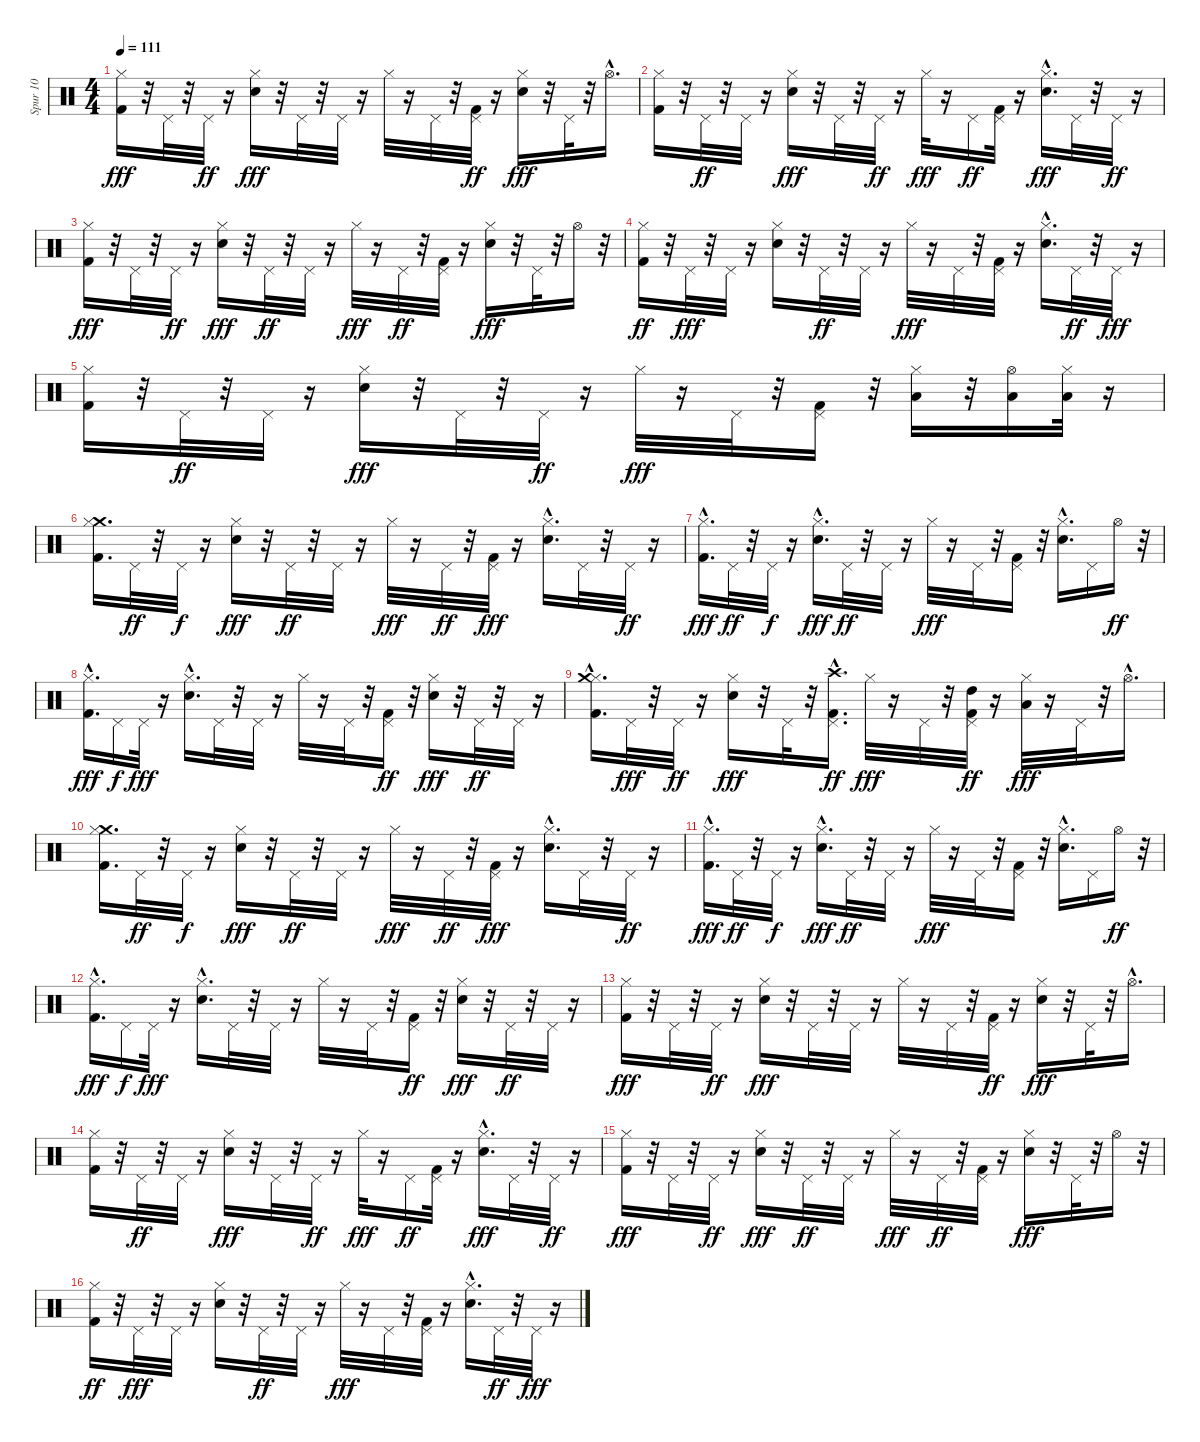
\track ("Spur 10" "Spur 10") {instrument percussion}
\staff {score}
\articulation defaults
\ts (4 4)
\tempo 111
\clef neutral
\ks c
("Kick (hit) 2" "Hi-Hat (closed)").16{dy fff} r.32 "Pedal Hi-Hat (hit)".32 r.32 "Pedal Hi-Hat (hit)".32{dy ff} r.16 ("Snare (hit) 2" "Hi-Hat (closed)").16{dy fff} r.32 "Pedal Hi-Hat (hit)".32 r.32 "Pedal Hi-Hat (hit)".32 r.16 "Hi-Hat (closed)".32 r.16 "Pedal Hi-Hat (hit)".32 r.32 ("Kick (hit) 2" "Pedal Hi-Hat (hit)").32{dy ff} r.16 ("Snare (hit) 2" "Hi-Hat (closed)").16{dy fff} r.32 "Pedal Hi-Hat (hit)".32 r.32 "Hi-Hat (open)"{hac}.16{d} |
("Kick (hit) 2" "Hi-Hat (closed)").16 r.32 "Pedal Hi-Hat (hit)".32{dy ff} r.32 "Pedal Hi-Hat (hit)".32 r.16 ("Snare (hit) 2" "Hi-Hat (closed)").16{dy fff} r.32 "Pedal Hi-Hat (hit)".32 r.32 "Pedal Hi-Hat (hit)".32{dy ff} r.16 "Hi-Hat (closed)".32{dy fff} r.16 "Pedal Hi-Hat (hit)".16{dy ff} ("Kick (hit) 2" "Pedal Hi-Hat (hit)").32 r.16 ("Snare (hit) 2"{hac} "Hi-Hat (closed)").16{d dy fff} "Pedal Hi-Hat (hit)".32 r.32 "Pedal Hi-Hat (hit)".32{dy ff} r.16 |
("Kick (hit) 2" "Hi-Hat (closed)").16{dy fff} r.32 "Pedal Hi-Hat (hit)".32 r.32 "Pedal Hi-Hat (hit)".32{dy ff} r.16 ("Snare (hit) 2" "Hi-Hat (closed)").16{dy fff} r.32 "Pedal Hi-Hat (hit)".32{dy ff} r.32 "Pedal Hi-Hat (hit)".32 r.16 "Hi-Hat (closed)".32{dy fff} r.16 "Pedal Hi-Hat (hit)".32{dy ff} r.32 ("Kick (hit) 2" "Pedal Hi-Hat (hit)").32 r.16 ("Snare (hit) 2" "Hi-Hat (closed)").16{dy fff} r.32 "Pedal Hi-Hat (hit)".32 r.32 "Hi-Hat (open)".16 r.32 |
("Kick (hit) 2" "Hi-Hat (closed)").16{dy ff} r.32 "Pedal Hi-Hat (hit)".32{dy fff} r.32 "Pedal Hi-Hat (hit)".32 r.16 ("Snare (hit) 2" "Hi-Hat (closed)").16 r.32 "Pedal Hi-Hat (hit)".32{dy ff} r.32 "Pedal Hi-Hat (hit)".32 r.16 "Hi-Hat (closed)".32{dy fff} r.16 "Pedal Hi-Hat (hit)".32 r.32 ("Kick (hit) 2" "Pedal Hi-Hat (hit)").32 r.16 ("Snare (hit) 2"{hac} "Hi-Hat (closed)").16{d} "Pedal Hi-Hat (hit)".32{dy ff} r.32 "Pedal Hi-Hat (hit)".32{dy fff} r.16 |
("Kick (hit) 2" "Hi-Hat (closed)").16 r.32 "Pedal Hi-Hat (hit)".32{dy ff} r.32 "Pedal Hi-Hat (hit)".32 r.16 ("Snare (hit) 2" "Hi-Hat (closed)").16{dy fff} r.32 "Pedal Hi-Hat (hit)".32 r.32 "Pedal Hi-Hat (hit)".32{dy ff} r.16 "Hi-Hat (closed)".32{dy fff} r.16 "Pedal Hi-Hat (hit)".32 r.32 ("Kick (hit) 2" "Pedal Hi-Hat (hit)").16 r.32 ("Low Tom (hit)" "Hi-Hat (closed)").16 r.32 ("Low Tom (hit)" "Hi-Hat (open)").16 ("Low Floor Tom (hit)" "Hi-Hat (closed)").32 r.16 |
("Kick (hit) 2" "Crash medium (hit)" "Hi-Hat (closed)").16{d} "Pedal Hi-Hat (hit)".32{dy ff} r.32 "Pedal Hi-Hat (hit)".32{dy f} r.16 ("Snare (hit) 2" "Hi-Hat (closed)").16{dy fff} r.32 "Pedal Hi-Hat (hit)".32{dy ff} r.32 "Pedal Hi-Hat (hit)".32 r.16 "Hi-Hat (closed)".32{dy fff} r.16 "Pedal Hi-Hat (hit)".32{dy ff} r.32 ("Kick (hit) 2" "Pedal Hi-Hat (hit)").32{dy fff} r.16 ("Snare (hit) 2"{hac} "Hi-Hat (closed)").16{d} "Pedal Hi-Hat (hit)".32 r.32 "Pedal Hi-Hat (hit)".32{dy ff} r.16 |
("Kick (hit) 2"{hac} "Hi-Hat (closed)").16{d dy fff} "Pedal Hi-Hat (hit)".32{dy ff} r.32 "Pedal Hi-Hat (hit)".32{dy f} r.16 ("Snare (hit) 2"{hac} "Hi-Hat (closed)").16{d dy fff} "Pedal Hi-Hat (hit)".32{dy ff} r.32 "Pedal Hi-Hat (hit)".32 r.16 "Hi-Hat (closed)".32{dy fff} r.16 "Pedal Hi-Hat (hit)".32 r.32 ("Kick (hit) 2" "Pedal Hi-Hat (hit)").16 r.32 ("Snare (hit) 2"{hac} "Hi-Hat (closed)").16{d} "Pedal Hi-Hat (hit)".16 "Hi-Hat (open)".16{dy ff} r.32 |
("Kick (hit) 2"{hac} "Hi-Hat (closed)").16{d dy fff} "Pedal Hi-Hat (hit)".16{dy f} "Pedal Hi-Hat (hit)".32{dy fff} r.16 ("Snare (hit) 2"{hac} "Hi-Hat (closed)").16{d} "Pedal Hi-Hat (hit)".32 r.32 "Pedal Hi-Hat (hit)".32 r.16 "Hi-Hat (closed)".32 r.16 "Pedal Hi-Hat (hit)".32 r.32 ("Kick (hit) 2" "Pedal Hi-Hat (hit)").16{dy ff} r.32 ("Snare (hit) 2" "Hi-Hat (closed)").16{dy fff} r.32 "Pedal Hi-Hat (hit)".32{dy ff} r.32 "Pedal Hi-Hat (hit)".32 r.16 |
("Kick (hit) 2" "Hi-Hat (closed)" "Crash medium (hit)"{hac}).16{d} "Pedal Hi-Hat (hit)".32{dy fff} r.32 "Pedal Hi-Hat (hit)".32{dy ff} r.16 ("Snare (hit) 2" "Hi-Hat (closed)").16{dy fff} r.32 "Pedal Hi-Hat (hit)".32 r.32 ("Pedal Hi-Hat (hit)" "Kick (hit) 2" "Crash high (hit)"{hac}).16{d dy ff} "Hi-Hat (closed)".32{dy fff} r.16 "Pedal Hi-Hat (hit)".32 r.32 ("Kick (hit) 2" "Pedal Hi-Hat (hit)" "High Tom (hit)").32{dy ff} r.16 ("Low Tom (hit)" "Hi-Hat (closed)").32{dy fff} r.16 "Pedal Hi-Hat (hit)".32 r.32 "Hi-Hat (open)"{hac}.16{d} |
("Kick (hit) 2" "Crash medium (hit)" "Hi-Hat (closed)").16{d} "Pedal Hi-Hat (hit)".32{dy ff} r.32 "Pedal Hi-Hat (hit)".32{dy f} r.16 ("Snare (hit) 2" "Hi-Hat (closed)").16{dy fff} r.32 "Pedal Hi-Hat (hit)".32{dy ff} r.32 "Pedal Hi-Hat (hit)".32 r.16 "Hi-Hat (closed)".32{dy fff} r.16 "Pedal Hi-Hat (hit)".32{dy ff} r.32 ("Kick (hit) 2" "Pedal Hi-Hat (hit)").32{dy fff} r.16 ("Snare (hit) 2"{hac} "Hi-Hat (closed)").16{d} "Pedal Hi-Hat (hit)".32 r.32 "Pedal Hi-Hat (hit)".32{dy ff} r.16 |
("Kick (hit) 2"{hac} "Hi-Hat (closed)").16{d dy fff} "Pedal Hi-Hat (hit)".32{dy ff} r.32 "Pedal Hi-Hat (hit)".32{dy f} r.16 ("Snare (hit) 2"{hac} "Hi-Hat (closed)").16{d dy fff} "Pedal Hi-Hat (hit)".32{dy ff} r.32 "Pedal Hi-Hat (hit)".32 r.16 "Hi-Hat (closed)".32{dy fff} r.16 "Pedal Hi-Hat (hit)".32 r.32 ("Kick (hit) 2" "Pedal Hi-Hat (hit)").16 r.32 ("Snare (hit) 2"{hac} "Hi-Hat (closed)").16{d} "Pedal Hi-Hat (hit)".16 "Hi-Hat (open)".16{dy ff} r.32 |
("Kick (hit) 2"{hac} "Hi-Hat (closed)").16{d dy fff} "Pedal Hi-Hat (hit)".16{dy f} "Pedal Hi-Hat (hit)".32{dy fff} r.16 ("Snare (hit) 2"{hac} "Hi-Hat (closed)").16{d} "Pedal Hi-Hat (hit)".32 r.32 "Pedal Hi-Hat (hit)".32 r.16 "Hi-Hat (closed)".32 r.16 "Pedal Hi-Hat (hit)".32 r.32 ("Kick (hit) 2" "Pedal Hi-Hat (hit)").16{dy ff} r.32 ("Snare (hit) 2" "Hi-Hat (closed)").16{dy fff} r.32 "Pedal Hi-Hat (hit)".32{dy ff} r.32 "Pedal Hi-Hat (hit)".32 r.16 |
("Kick (hit) 2" "Hi-Hat (closed)").16{dy fff} r.32 "Pedal Hi-Hat (hit)".32 r.32 "Pedal Hi-Hat (hit)".32{dy ff} r.16 ("Snare (hit) 2" "Hi-Hat (closed)").16{dy fff} r.32 "Pedal Hi-Hat (hit)".32 r.32 "Pedal Hi-Hat (hit)".32 r.16 "Hi-Hat (closed)".32 r.16 "Pedal Hi-Hat (hit)".32 r.32 ("Kick (hit) 2" "Pedal Hi-Hat (hit)").32{dy ff} r.16 ("Snare (hit) 2" "Hi-Hat (closed)").16{dy fff} r.32 "Pedal Hi-Hat (hit)".32 r.32 "Hi-Hat (open)"{hac}.16{d} |
("Kick (hit) 2" "Hi-Hat (closed)").16 r.32 "Pedal Hi-Hat (hit)".32{dy ff} r.32 "Pedal Hi-Hat (hit)".32 r.16 ("Snare (hit) 2" "Hi-Hat (closed)").16{dy fff} r.32 "Pedal Hi-Hat (hit)".32 r.32 "Pedal Hi-Hat (hit)".32{dy ff} r.16 "Hi-Hat (closed)".32{dy fff} r.16 "Pedal Hi-Hat (hit)".16{dy ff} ("Kick (hit) 2" "Pedal Hi-Hat (hit)").32 r.16 ("Snare (hit) 2"{hac} "Hi-Hat (closed)").16{d dy fff} "Pedal Hi-Hat (hit)".32 r.32 "Pedal Hi-Hat (hit)".32{dy ff} r.16 |
("Kick (hit) 2" "Hi-Hat (closed)").16{dy fff} r.32 "Pedal Hi-Hat (hit)".32 r.32 "Pedal Hi-Hat (hit)".32{dy ff} r.16 ("Snare (hit) 2" "Hi-Hat (closed)").16{dy fff} r.32 "Pedal Hi-Hat (hit)".32{dy ff} r.32 "Pedal Hi-Hat (hit)".32 r.16 "Hi-Hat (closed)".32{dy fff} r.16 "Pedal Hi-Hat (hit)".32{dy ff} r.32 ("Kick (hit) 2" "Pedal Hi-Hat (hit)").32 r.16 ("Snare (hit) 2" "Hi-Hat (closed)").16{dy fff} r.32 "Pedal Hi-Hat (hit)".32 r.32 "Hi-Hat (open)".16 r.32 |
("Kick (hit) 2" "Hi-Hat (closed)").16{dy ff} r.32 "Pedal Hi-Hat (hit)".32{dy fff} r.32 "Pedal Hi-Hat (hit)".32 r.16 ("Snare (hit) 2" "Hi-Hat (closed)").16 r.32 "Pedal Hi-Hat (hit)".32{dy ff} r.32 "Pedal Hi-Hat (hit)".32 r.16 "Hi-Hat (closed)".32{dy fff} r.16 "Pedal Hi-Hat (hit)".32 r.32 ("Kick (hit) 2" "Pedal Hi-Hat (hit)").32 r.16 ("Snare (hit) 2"{hac} "Hi-Hat (closed)").16{d} "Pedal Hi-Hat (hit)".32{dy ff} r.32 "Pedal Hi-Hat (hit)".32{dy fff} r.16
